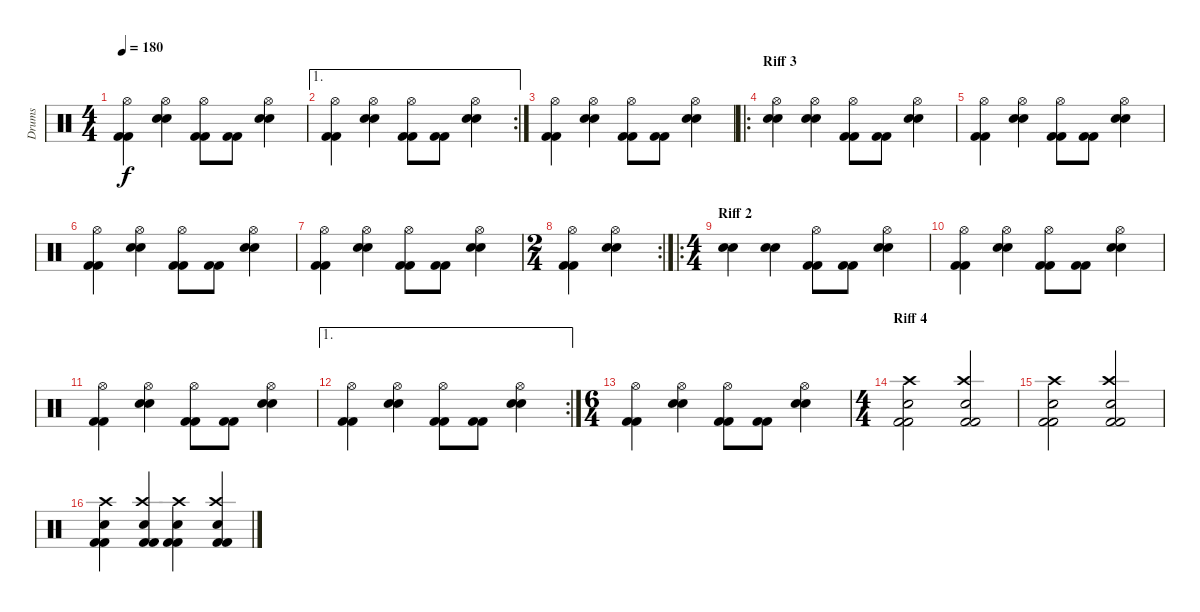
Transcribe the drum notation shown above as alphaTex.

\track ("Drums" "Drums") {instrument percussion}
\staff {score}
\articulation defaults
\ts (4 4)
\tempo 180
\clef neutral
\ks c
("Hi-Hat (open)" "Kick (hit) 2" "Kick (hit) 2").4{dy f} ("Hi-Hat (open)" "Snare (hit) 2" "Snare (hit) 2").4 ("Hi-Hat (open)" "Kick (hit) 2" "Kick (hit) 2").8 ("Kick (hit) 2" "Kick (hit) 2").8 ("Hi-Hat (open)" "Snare (hit) 2" "Snare (hit) 2").4 |
\ae 1
\rc 2
("Hi-Hat (open)" "Kick (hit) 2" "Kick (hit) 2").4 ("Hi-Hat (open)" "Snare (hit) 2" "Snare (hit) 2").4 ("Hi-Hat (open)" "Kick (hit) 2" "Kick (hit) 2").8 ("Kick (hit) 2" "Kick (hit) 2").8 ("Hi-Hat (open)" "Snare (hit) 2" "Snare (hit) 2").4 |
("Hi-Hat (open)" "Kick (hit) 2" "Kick (hit) 2").4 ("Hi-Hat (open)" "Snare (hit) 2" "Snare (hit) 2").4 ("Hi-Hat (open)" "Kick (hit) 2" "Kick (hit) 2").8 ("Kick (hit) 2" "Kick (hit) 2").8 ("Hi-Hat (open)" "Snare (hit) 2" "Snare (hit) 2").4 |
\ro
\section ("" "Riff 3")
("Hi-Hat (open)" "Snare (hit) 2" "Snare (hit) 2").4 ("Hi-Hat (open)" "Snare (hit) 2" "Snare (hit) 2").4 ("Hi-Hat (open)" "Kick (hit) 2" "Kick (hit) 2").8 ("Kick (hit) 2" "Kick (hit) 2").8 ("Hi-Hat (open)" "Snare (hit) 2" "Snare (hit) 2").4 |
("Hi-Hat (open)" "Kick (hit) 2" "Kick (hit) 2").4 ("Hi-Hat (open)" "Snare (hit) 2" "Snare (hit) 2").4 ("Hi-Hat (open)" "Kick (hit) 2" "Kick (hit) 2").8 ("Kick (hit) 2" "Kick (hit) 2").8 ("Hi-Hat (open)" "Snare (hit) 2" "Snare (hit) 2").4 |
("Hi-Hat (open)" "Kick (hit) 2" "Kick (hit) 2").4 ("Hi-Hat (open)" "Snare (hit) 2" "Snare (hit) 2").4 ("Hi-Hat (open)" "Kick (hit) 2" "Kick (hit) 2").8 ("Kick (hit) 2" "Kick (hit) 2").8 ("Hi-Hat (open)" "Snare (hit) 2" "Snare (hit) 2").4 |
("Hi-Hat (open)" "Kick (hit) 2" "Kick (hit) 2").4 ("Hi-Hat (open)" "Snare (hit) 2" "Snare (hit) 2").4 ("Hi-Hat (open)" "Kick (hit) 2" "Kick (hit) 2").8 ("Kick (hit) 2" "Kick (hit) 2").8 ("Hi-Hat (open)" "Snare (hit) 2" "Snare (hit) 2").4 |
\rc 2
\ts (2 4)
("Hi-Hat (open)" "Kick (hit) 2" "Kick (hit) 2").4 ("Hi-Hat (open)" "Snare (hit) 2" "Snare (hit) 2").4 |
\ro
\ts (4 4)
\section ("" "Riff 2")
("Snare (hit) 2" "Snare (hit) 2").4 ("Snare (hit) 2" "Snare (hit) 2").4 ("Hi-Hat (open)" "Kick (hit) 2" "Kick (hit) 2").8 ("Kick (hit) 2" "Kick (hit) 2").8 ("Hi-Hat (open)" "Snare (hit) 2" "Snare (hit) 2").4 |
("Hi-Hat (open)" "Kick (hit) 2" "Kick (hit) 2").4 ("Hi-Hat (open)" "Snare (hit) 2" "Snare (hit) 2").4 ("Hi-Hat (open)" "Kick (hit) 2" "Kick (hit) 2").8 ("Kick (hit) 2" "Kick (hit) 2").8 ("Hi-Hat (open)" "Snare (hit) 2" "Snare (hit) 2").4 |
("Hi-Hat (open)" "Kick (hit) 2" "Kick (hit) 2").4 ("Hi-Hat (open)" "Snare (hit) 2" "Snare (hit) 2").4 ("Hi-Hat (open)" "Kick (hit) 2" "Kick (hit) 2").8 ("Kick (hit) 2" "Kick (hit) 2").8 ("Hi-Hat (open)" "Snare (hit) 2" "Snare (hit) 2").4 |
\ae 1
\rc 2
("Hi-Hat (open)" "Kick (hit) 2" "Kick (hit) 2").4 ("Hi-Hat (open)" "Snare (hit) 2" "Snare (hit) 2").4 ("Hi-Hat (open)" "Kick (hit) 2" "Kick (hit) 2").8 ("Kick (hit) 2" "Kick (hit) 2").8 ("Hi-Hat (open)" "Snare (hit) 2" "Snare (hit) 2").4 |
\ts (6 4)
("Hi-Hat (open)" "Kick (hit) 2" "Kick (hit) 2").4 ("Hi-Hat (open)" "Snare (hit) 2" "Snare (hit) 2").4 ("Hi-Hat (open)" "Kick (hit) 2" "Kick (hit) 2").8 ("Kick (hit) 2" "Kick (hit) 2").8 ("Hi-Hat (open)" "Snare (hit) 2" "Snare (hit) 2").4 |
\ts (4 4)
\section ("" "Riff 4")
("Crash high (hit)" "Snare (hit) 2" "Kick (hit) 2" "Kick (hit) 2").2 ("Crash high (hit)" "Electric Snare (hit)" "Kick (hit) 2" "Kick (hit) 2").2 |
("Crash high (hit)" "Snare (hit) 2" "Kick (hit) 2" "Kick (hit) 2").2 ("Crash high (hit)" "Electric Snare (hit)" "Kick (hit) 2" "Kick (hit) 2").2 |
("Crash high (hit)" "Snare (hit) 2" "Kick (hit) 2" "Kick (hit) 2").4 ("Crash high (hit)" "Electric Snare (hit)" "Kick (hit) 2" "Kick (hit) 2").4 ("Crash high (hit)" "Snare (hit) 2" "Kick (hit) 2" "Kick (hit) 2").4 ("Crash high (hit)" "Electric Snare (hit)" "Kick (hit) 2" "Kick (hit) 2").4
